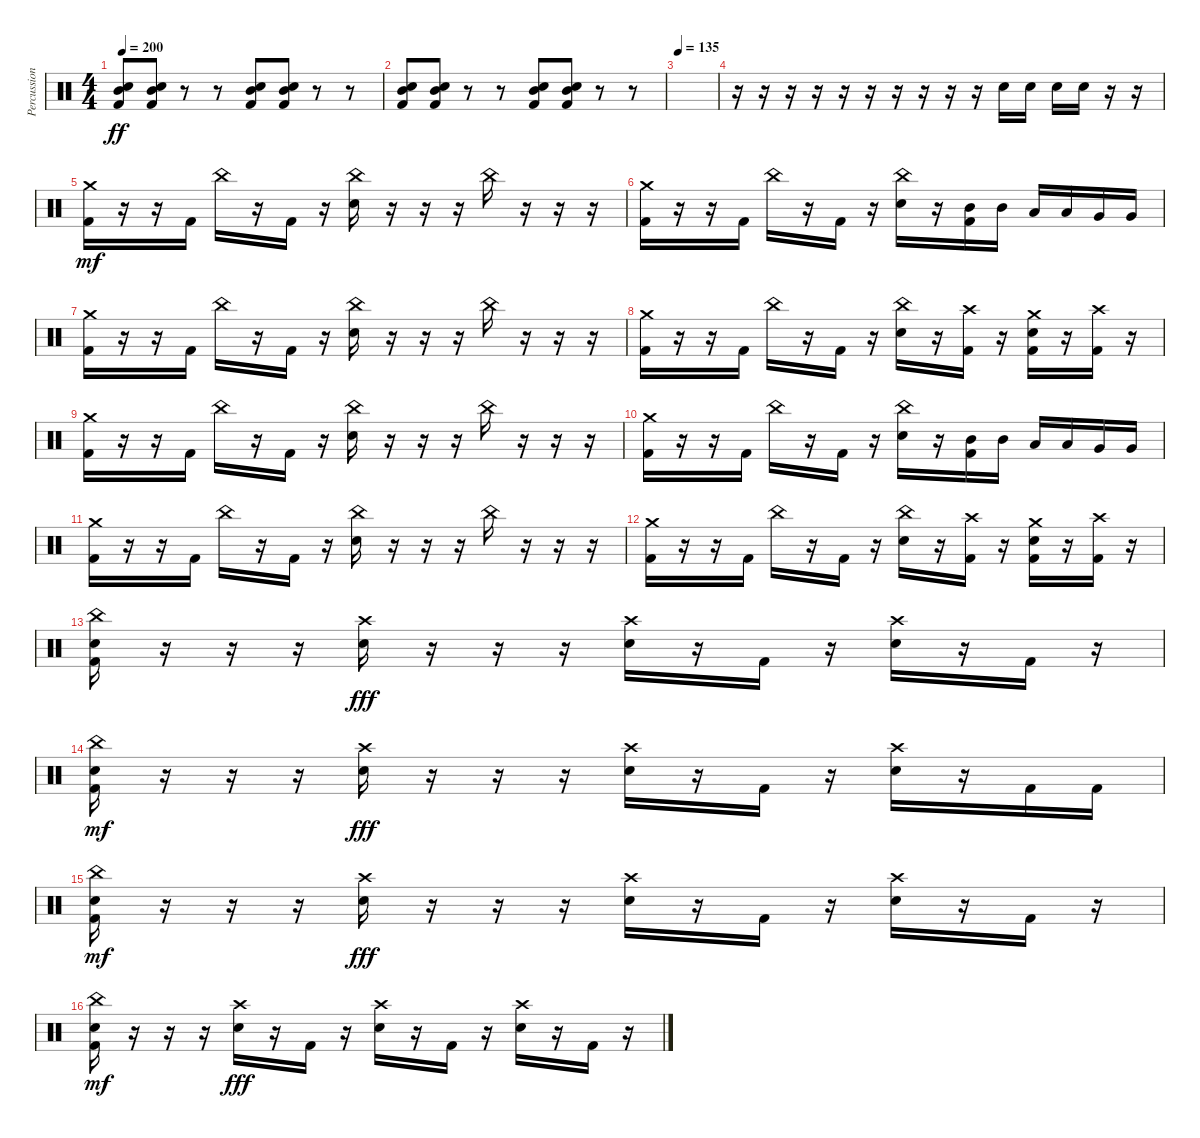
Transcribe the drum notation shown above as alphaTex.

\track ("Percussion" "Percussion") {instrument percussion bank 255}
\staff {score}
\articulation defaults
\ts (4 4)
\tempo 200
\clef neutral
\ks c
("Electric Snare (hit)" "Mid Tom (hit)" "Kick (hit) 2").8{dy ff} ("Electric Snare (hit)" "Mid Tom (hit)" "Kick (hit) 2").8 r.8 r.8 ("Electric Snare (hit)" "Mid Tom (hit)" "Kick (hit) 2").8 ("Electric Snare (hit)" "Mid Tom (hit)" "Kick (hit) 2").8 r.8 r.8 |
("Electric Snare (hit)" "Mid Tom (hit)" "Kick (hit) 2").8 ("Electric Snare (hit)" "Mid Tom (hit)" "Kick (hit) 2").8 r.8 r.8 ("Electric Snare (hit)" "Mid Tom (hit)" "Kick (hit) 2").8 ("Electric Snare (hit)" "Mid Tom (hit)" "Kick (hit) 2").8 r.8 r.8 |
\tempo 135
|
r.16 r.16 r.16 r.16 r.16 r.16 r.16 r.16 r.16 r.16 "Electric Snare (hit)".16 "Electric Snare (hit)".16 "Electric Snare (hit)".16 "Electric Snare (hit)".16 r.16 r.16 |
("Crash medium (hit)" "Kick (hit) 2").16{dy mf} r.16 r.16 "Kick (hit) 2".16 "China (hit)".16 r.16 "Kick (hit) 2".16 r.16 ("China (hit)" "Electric Snare (hit)").16 r.16 r.16 r.16 "China (hit)".16 r.16 r.16 r.16 |
("Crash medium (hit)" "Kick (hit) 2").16 r.16 r.16 "Kick (hit) 2".16 "China (hit)".16 r.16 "Kick (hit) 2".16 r.16 ("China (hit)" "Electric Snare (hit)").16 r.16 ("Mid Tom (hit)" "Kick (hit) 2").16 "Mid Tom (hit)".16 "Low Tom (hit)".16 "Low Tom (hit)".16 "Very Low Tom (hit)".16 "Very Low Tom (hit)".16 |
("Crash medium (hit)" "Kick (hit) 2").16 r.16 r.16 "Kick (hit) 2".16 "China (hit)".16 r.16 "Kick (hit) 2".16 r.16 ("China (hit)" "Electric Snare (hit)").16 r.16 r.16 r.16 "China (hit)".16 r.16 r.16 r.16 |
("Crash medium (hit)" "Kick (hit) 2").16 r.16 r.16 "Kick (hit) 2".16 "China (hit)".16 r.16 "Kick (hit) 2".16 r.16 ("China (hit)" "Electric Snare (hit)").16 r.16 ("Crash high (hit)" "Kick (hit) 2").16 r.16 ("Crash medium (hit)" "Electric Snare (hit)" "Kick (hit) 2").16 r.16 ("Crash high (hit)" "Kick (hit) 2").16 r.16 |
("Crash medium (hit)" "Kick (hit) 2").16 r.16 r.16 "Kick (hit) 2".16 "China (hit)".16 r.16 "Kick (hit) 2".16 r.16 ("China (hit)" "Electric Snare (hit)").16 r.16 r.16 r.16 "China (hit)".16 r.16 r.16 r.16 |
("Crash medium (hit)" "Kick (hit) 2").16 r.16 r.16 "Kick (hit) 2".16 "China (hit)".16 r.16 "Kick (hit) 2".16 r.16 ("China (hit)" "Electric Snare (hit)").16 r.16 ("Mid Tom (hit)" "Kick (hit) 2").16 "Mid Tom (hit)".16 "Low Tom (hit)".16 "Low Tom (hit)".16 "Very Low Tom (hit)".16 "Very Low Tom (hit)".16 |
("Crash medium (hit)" "Kick (hit) 2").16 r.16 r.16 "Kick (hit) 2".16 "China (hit)".16 r.16 "Kick (hit) 2".16 r.16 ("China (hit)" "Electric Snare (hit)").16 r.16 r.16 r.16 "China (hit)".16 r.16 r.16 r.16 |
("Crash medium (hit)" "Kick (hit) 2").16 r.16 r.16 "Kick (hit) 2".16 "China (hit)".16 r.16 "Kick (hit) 2".16 r.16 ("China (hit)" "Electric Snare (hit)").16 r.16 ("Crash high (hit)" "Kick (hit) 2").16 r.16 ("Crash medium (hit)" "Electric Snare (hit)" "Kick (hit) 2").16 r.16 ("Crash high (hit)" "Kick (hit) 2").16 r.16 |
("China (hit)" "Electric Snare (hit)" "Kick (hit) 2").16 r.16 r.16 r.16 ("Crash high (hit)" "Electric Snare (hit)").16{dy fff} r.16 r.16 r.16 ("Crash high (hit)" "Electric Snare (hit)").16 r.16 "Kick (hit) 2".16 r.16 ("Crash high (hit)" "Electric Snare (hit)").16 r.16 "Kick (hit) 2".16 r.16 |
("China (hit)" "Electric Snare (hit)" "Kick (hit) 2").16{dy mf} r.16 r.16 r.16 ("Crash high (hit)" "Electric Snare (hit)").16{dy fff} r.16 r.16 r.16 ("Crash high (hit)" "Electric Snare (hit)").16 r.16 "Kick (hit) 2".16 r.16 ("Crash high (hit)" "Electric Snare (hit)").16 r.16 "Kick (hit) 2".16 "Kick (hit) 2".16 |
("China (hit)" "Electric Snare (hit)" "Kick (hit) 2").16{dy mf} r.16 r.16 r.16 ("Crash high (hit)" "Electric Snare (hit)").16{dy fff} r.16 r.16 r.16 ("Crash high (hit)" "Electric Snare (hit)").16 r.16 "Kick (hit) 2".16 r.16 ("Crash high (hit)" "Electric Snare (hit)").16 r.16 "Kick (hit) 2".16 r.16 |
("China (hit)" "Electric Snare (hit)" "Kick (hit) 2").16{dy mf} r.16 r.16 r.16 ("Crash high (hit)" "Electric Snare (hit)").16{dy fff} r.16 "Kick (hit) 2".16 r.16 ("Crash high (hit)" "Electric Snare (hit)").16 r.16 "Kick (hit) 2".16 r.16 ("Crash high (hit)" "Electric Snare (hit)").16 r.16 "Kick (hit) 2".16 r.16
